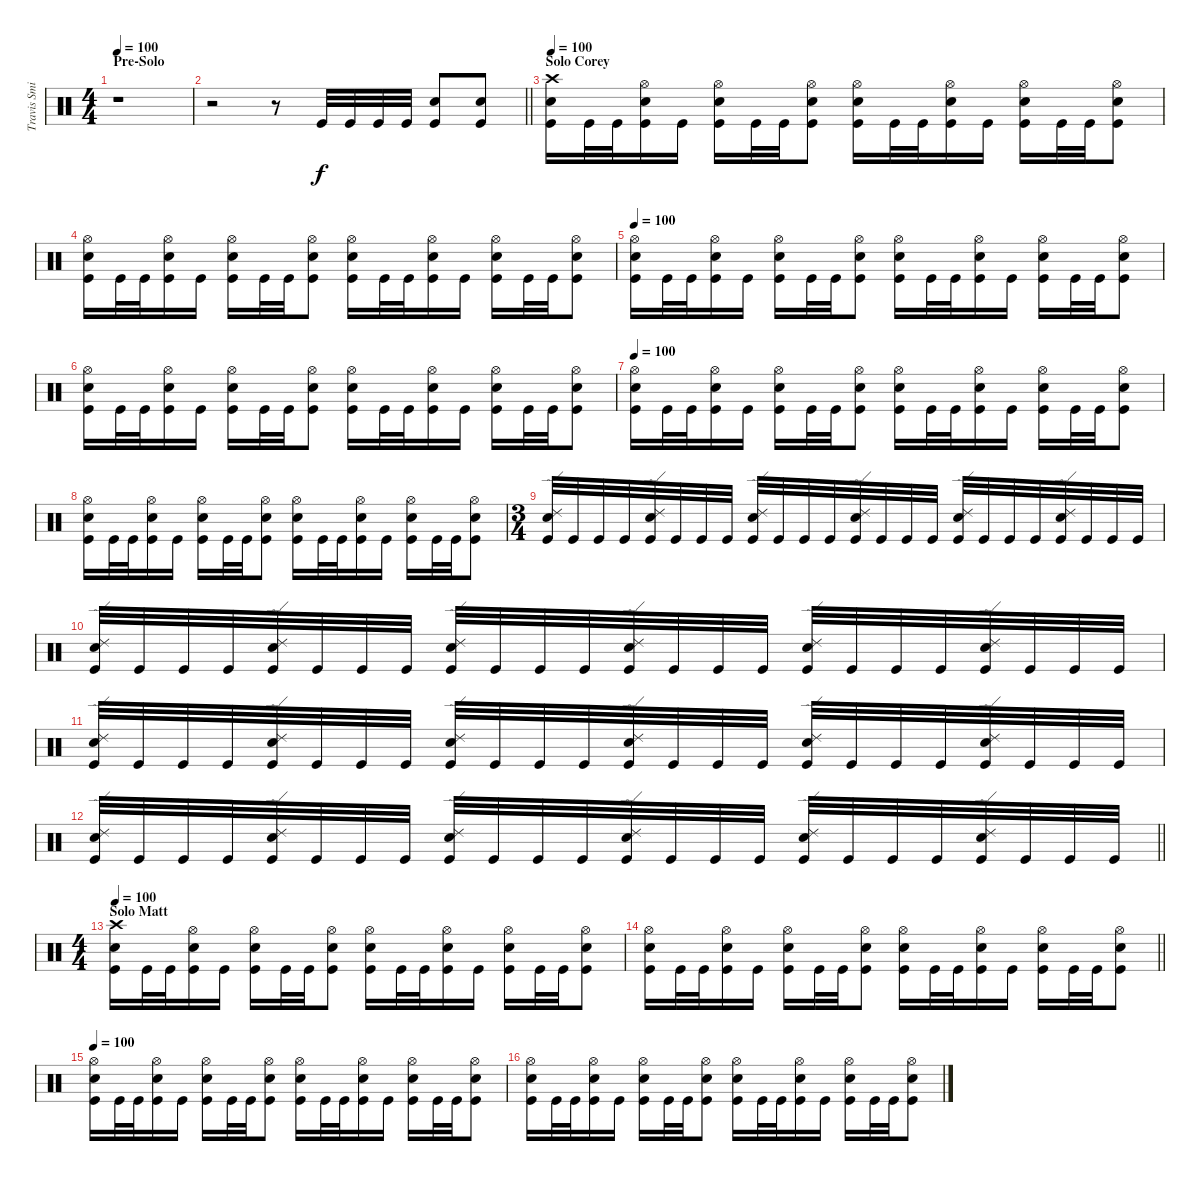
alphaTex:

\track ("Travis Smith" "Travis Smi") {instrument percussion}
\staff {score}
\articulation defaults
\ts (4 4)
\section ("" "Pre-Solo")
\tempo 100
\clef neutral
\ks c
r.1{dy f} |
\barLineRight lightlight
r.2 r.8 "Kick (hit)".32 "Kick (hit)".32 "Kick (hit)".32 "Kick (hit)".32 ("Snare (hit) 2" "Kick (hit)").8 ("Snare (hit) 2" "Kick (hit)").8 |
\section ("" "Solo Corey")
\tempo 100
("Crash high (hit)" "Snare (hit) 2" "Kick (hit)").16 "Kick (hit)".32 "Kick (hit)".32 ("Hi-Hat (open)" "Snare (hit) 2" "Kick (hit)").16 "Kick (hit)".16 ("Hi-Hat (open)" "Snare (hit) 2" "Kick (hit)").16 "Kick (hit)".32 "Kick (hit)".32 ("Hi-Hat (open)" "Snare (hit) 2" "Kick (hit)").8 ("Hi-Hat (open)" "Snare (hit) 2" "Kick (hit)").16 "Kick (hit)".32 "Kick (hit)".32 ("Hi-Hat (open)" "Snare (hit) 2" "Kick (hit)").16 "Kick (hit)".16 ("Hi-Hat (open)" "Snare (hit) 2" "Kick (hit)").16 "Kick (hit)".32 "Kick (hit)".32 ("Hi-Hat (open)" "Snare (hit) 2" "Kick (hit)").8 |
("Hi-Hat (open)" "Snare (hit) 2" "Kick (hit)").16 "Kick (hit)".32 "Kick (hit)".32 ("Hi-Hat (open)" "Snare (hit) 2" "Kick (hit)").16 "Kick (hit)".16 ("Hi-Hat (open)" "Snare (hit) 2" "Kick (hit)").16 "Kick (hit)".32 "Kick (hit)".32 ("Hi-Hat (open)" "Snare (hit) 2" "Kick (hit)").8 ("Hi-Hat (open)" "Snare (hit) 2" "Kick (hit)").16 "Kick (hit)".32 "Kick (hit)".32 ("Hi-Hat (open)" "Snare (hit) 2" "Kick (hit)").16 "Kick (hit)".16 ("Hi-Hat (open)" "Snare (hit) 2" "Kick (hit)").16 "Kick (hit)".32 "Kick (hit)".32 ("Hi-Hat (open)" "Snare (hit) 2" "Kick (hit)").8 |
\tempo 100
("Hi-Hat (open)" "Snare (hit) 2" "Kick (hit)").16 "Kick (hit)".32 "Kick (hit)".32 ("Hi-Hat (open)" "Snare (hit) 2" "Kick (hit)").16 "Kick (hit)".16 ("Hi-Hat (open)" "Snare (hit) 2" "Kick (hit)").16 "Kick (hit)".32 "Kick (hit)".32 ("Hi-Hat (open)" "Snare (hit) 2" "Kick (hit)").8 ("Hi-Hat (open)" "Snare (hit) 2" "Kick (hit)").16 "Kick (hit)".32 "Kick (hit)".32 ("Hi-Hat (open)" "Snare (hit) 2" "Kick (hit)").16 "Kick (hit)".16 ("Hi-Hat (open)" "Snare (hit) 2" "Kick (hit)").16 "Kick (hit)".32 "Kick (hit)".32 ("Hi-Hat (open)" "Snare (hit) 2" "Kick (hit)").8 |
("Hi-Hat (open)" "Snare (hit) 2" "Kick (hit)").16 "Kick (hit)".32 "Kick (hit)".32 ("Hi-Hat (open)" "Snare (hit) 2" "Kick (hit)").16 "Kick (hit)".16 ("Hi-Hat (open)" "Snare (hit) 2" "Kick (hit)").16 "Kick (hit)".32 "Kick (hit)".32 ("Hi-Hat (open)" "Snare (hit) 2" "Kick (hit)").8 ("Hi-Hat (open)" "Snare (hit) 2" "Kick (hit)").16 "Kick (hit)".32 "Kick (hit)".32 ("Hi-Hat (open)" "Snare (hit) 2" "Kick (hit)").16 "Kick (hit)".16 ("Hi-Hat (open)" "Snare (hit) 2" "Kick (hit)").16 "Kick (hit)".32 "Kick (hit)".32 ("Hi-Hat (open)" "Snare (hit) 2" "Kick (hit)").8 |
\tempo 100
("Hi-Hat (open)" "Snare (hit) 2" "Kick (hit)").16 "Kick (hit)".32 "Kick (hit)".32 ("Hi-Hat (open)" "Snare (hit) 2" "Kick (hit)").16 "Kick (hit)".16 ("Hi-Hat (open)" "Snare (hit) 2" "Kick (hit)").16 "Kick (hit)".32 "Kick (hit)".32 ("Hi-Hat (open)" "Snare (hit) 2" "Kick (hit)").8 ("Hi-Hat (open)" "Snare (hit) 2" "Kick (hit)").16 "Kick (hit)".32 "Kick (hit)".32 ("Hi-Hat (open)" "Snare (hit) 2" "Kick (hit)").16 "Kick (hit)".16 ("Hi-Hat (open)" "Snare (hit) 2" "Kick (hit)").16 "Kick (hit)".32 "Kick (hit)".32 ("Hi-Hat (open)" "Snare (hit) 2" "Kick (hit)").8 |
("Hi-Hat (open)" "Snare (hit) 2" "Kick (hit)").16 "Kick (hit)".32 "Kick (hit)".32 ("Hi-Hat (open)" "Snare (hit) 2" "Kick (hit)").16 "Kick (hit)".16 ("Hi-Hat (open)" "Snare (hit) 2" "Kick (hit)").16 "Kick (hit)".32 "Kick (hit)".32 ("Hi-Hat (open)" "Snare (hit) 2" "Kick (hit)").8 ("Hi-Hat (open)" "Snare (hit) 2" "Kick (hit)").16 "Kick (hit)".32 "Kick (hit)".32 ("Hi-Hat (open)" "Snare (hit) 2" "Kick (hit)").16 "Kick (hit)".16 ("Hi-Hat (open)" "Snare (hit) 2" "Kick (hit)").16 "Kick (hit)".32 "Kick (hit)".32 ("Hi-Hat (open)" "Snare (hit) 2" "Kick (hit)").8 |
\ts (3 4)
("Ride (edge) 2" "Snare (hit) 2" "Kick (hit)").32 "Kick (hit)".32 "Kick (hit)".32 "Kick (hit)".32 ("Ride (edge) 2" "Snare (hit) 2" "Kick (hit)").32 "Kick (hit)".32 "Kick (hit)".32 "Kick (hit)".32 ("Ride (edge) 2" "Snare (hit) 2" "Kick (hit)").32 "Kick (hit)".32 "Kick (hit)".32 "Kick (hit)".32 ("Ride (edge) 2" "Snare (hit) 2" "Kick (hit)").32 "Kick (hit)".32 "Kick (hit)".32 "Kick (hit)".32 ("Ride (edge) 2" "Snare (hit) 2" "Kick (hit)").32 "Kick (hit)".32 "Kick (hit)".32 "Kick (hit)".32 ("Ride (edge) 2" "Snare (hit) 2" "Kick (hit)").32 "Kick (hit)".32 "Kick (hit)".32 "Kick (hit)".32 |
("Ride (edge) 2" "Snare (hit) 2" "Kick (hit)").32 "Kick (hit)".32 "Kick (hit)".32 "Kick (hit)".32 ("Ride (edge) 2" "Snare (hit) 2" "Kick (hit)").32 "Kick (hit)".32 "Kick (hit)".32 "Kick (hit)".32 ("Ride (edge) 2" "Snare (hit) 2" "Kick (hit)").32 "Kick (hit)".32 "Kick (hit)".32 "Kick (hit)".32 ("Ride (edge) 2" "Snare (hit) 2" "Kick (hit)").32 "Kick (hit)".32 "Kick (hit)".32 "Kick (hit)".32 ("Ride (edge) 2" "Snare (hit) 2" "Kick (hit)").32 "Kick (hit)".32 "Kick (hit)".32 "Kick (hit)".32 ("Ride (edge) 2" "Snare (hit) 2" "Kick (hit)").32 "Kick (hit)".32 "Kick (hit)".32 "Kick (hit)".32 |
("Ride (edge) 2" "Snare (hit) 2" "Kick (hit)").32 "Kick (hit)".32 "Kick (hit)".32 "Kick (hit)".32 ("Ride (edge) 2" "Snare (hit) 2" "Kick (hit)").32 "Kick (hit)".32 "Kick (hit)".32 "Kick (hit)".32 ("Ride (edge) 2" "Snare (hit) 2" "Kick (hit)").32 "Kick (hit)".32 "Kick (hit)".32 "Kick (hit)".32 ("Ride (edge) 2" "Snare (hit) 2" "Kick (hit)").32 "Kick (hit)".32 "Kick (hit)".32 "Kick (hit)".32 ("Ride (edge) 2" "Snare (hit) 2" "Kick (hit)").32 "Kick (hit)".32 "Kick (hit)".32 "Kick (hit)".32 ("Ride (edge) 2" "Snare (hit) 2" "Kick (hit)").32 "Kick (hit)".32 "Kick (hit)".32 "Kick (hit)".32 |
\barLineRight lightlight
("Ride (edge) 2" "Snare (hit) 2" "Kick (hit)").32 "Kick (hit)".32 "Kick (hit)".32 "Kick (hit)".32 ("Ride (edge) 2" "Snare (hit) 2" "Kick (hit)").32 "Kick (hit)".32 "Kick (hit)".32 "Kick (hit)".32 ("Ride (edge) 2" "Snare (hit) 2" "Kick (hit)").32 "Kick (hit)".32 "Kick (hit)".32 "Kick (hit)".32 ("Ride (edge) 2" "Snare (hit) 2" "Kick (hit)").32 "Kick (hit)".32 "Kick (hit)".32 "Kick (hit)".32 ("Ride (edge) 2" "Snare (hit) 2" "Kick (hit)").32 "Kick (hit)".32 "Kick (hit)".32 "Kick (hit)".32 ("Ride (edge) 2" "Snare (hit) 2" "Kick (hit)").32 "Kick (hit)".32 "Kick (hit)".32 "Kick (hit)".32 |
\ts (4 4)
\section ("" "Solo Matt")
\tempo 100
("Crash high (hit)" "Snare (hit) 2" "Kick (hit)").16 "Kick (hit)".32 "Kick (hit)".32 ("Hi-Hat (open)" "Snare (hit) 2" "Kick (hit)").16 "Kick (hit)".16 ("Hi-Hat (open)" "Snare (hit) 2" "Kick (hit)").16 "Kick (hit)".32 "Kick (hit)".32 ("Hi-Hat (open)" "Snare (hit) 2" "Kick (hit)").8 ("Hi-Hat (open)" "Snare (hit) 2" "Kick (hit)").16 "Kick (hit)".32 "Kick (hit)".32 ("Hi-Hat (open)" "Snare (hit) 2" "Kick (hit)").16 "Kick (hit)".16 ("Hi-Hat (open)" "Snare (hit) 2" "Kick (hit)").16 "Kick (hit)".32 "Kick (hit)".32 ("Hi-Hat (open)" "Snare (hit) 2" "Kick (hit)").8 |
\barLineRight lightlight
("Hi-Hat (open)" "Snare (hit) 2" "Kick (hit)").16 "Kick (hit)".32 "Kick (hit)".32 ("Hi-Hat (open)" "Snare (hit) 2" "Kick (hit)").16 "Kick (hit)".16 ("Hi-Hat (open)" "Snare (hit) 2" "Kick (hit)").16 "Kick (hit)".32 "Kick (hit)".32 ("Hi-Hat (open)" "Snare (hit) 2" "Kick (hit)").8 ("Hi-Hat (open)" "Snare (hit) 2" "Kick (hit)").16 "Kick (hit)".32 "Kick (hit)".32 ("Hi-Hat (open)" "Snare (hit) 2" "Kick (hit)").16 "Kick (hit)".16 ("Hi-Hat (open)" "Snare (hit) 2" "Kick (hit)").16 "Kick (hit)".32 "Kick (hit)".32 ("Hi-Hat (open)" "Snare (hit) 2" "Kick (hit)").8 |
\tempo 100
("Hi-Hat (open)" "Snare (hit) 2" "Kick (hit)").16 "Kick (hit)".32 "Kick (hit)".32 ("Hi-Hat (open)" "Snare (hit) 2" "Kick (hit)").16 "Kick (hit)".16 ("Hi-Hat (open)" "Snare (hit) 2" "Kick (hit)").16 "Kick (hit)".32 "Kick (hit)".32 ("Hi-Hat (open)" "Snare (hit) 2" "Kick (hit)").8 ("Hi-Hat (open)" "Snare (hit) 2" "Kick (hit)").16 "Kick (hit)".32 "Kick (hit)".32 ("Hi-Hat (open)" "Snare (hit) 2" "Kick (hit)").16 "Kick (hit)".16 ("Hi-Hat (open)" "Snare (hit) 2" "Kick (hit)").16 "Kick (hit)".32 "Kick (hit)".32 ("Hi-Hat (open)" "Snare (hit) 2" "Kick (hit)").8 |
("Hi-Hat (open)" "Snare (hit) 2" "Kick (hit)").16 "Kick (hit)".32 "Kick (hit)".32 ("Hi-Hat (open)" "Snare (hit) 2" "Kick (hit)").16 "Kick (hit)".16 ("Hi-Hat (open)" "Snare (hit) 2" "Kick (hit)").16 "Kick (hit)".32 "Kick (hit)".32 ("Hi-Hat (open)" "Snare (hit) 2" "Kick (hit)").8 ("Hi-Hat (open)" "Snare (hit) 2" "Kick (hit)").16 "Kick (hit)".32 "Kick (hit)".32 ("Hi-Hat (open)" "Snare (hit) 2" "Kick (hit)").16 "Kick (hit)".16 ("Hi-Hat (open)" "Snare (hit) 2" "Kick (hit)").16 "Kick (hit)".32 "Kick (hit)".32 ("Hi-Hat (open)" "Snare (hit) 2" "Kick (hit)").8
